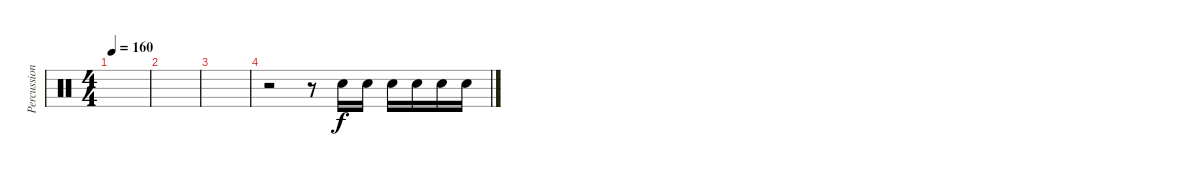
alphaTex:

\track ("Percussion" "Percussion") {instrument percussion}
\staff {score}
\articulation defaults
\ts (4 4)
\tempo 160
\clef neutral
\ks c
|
|
|
r.2 r.8 "Electric Snare (hit)".16 "Electric Snare (hit)".16 "Electric Snare (hit)".16 "Electric Snare (hit)".16 "Electric Snare (hit)".16 "Electric Snare (hit)".16
